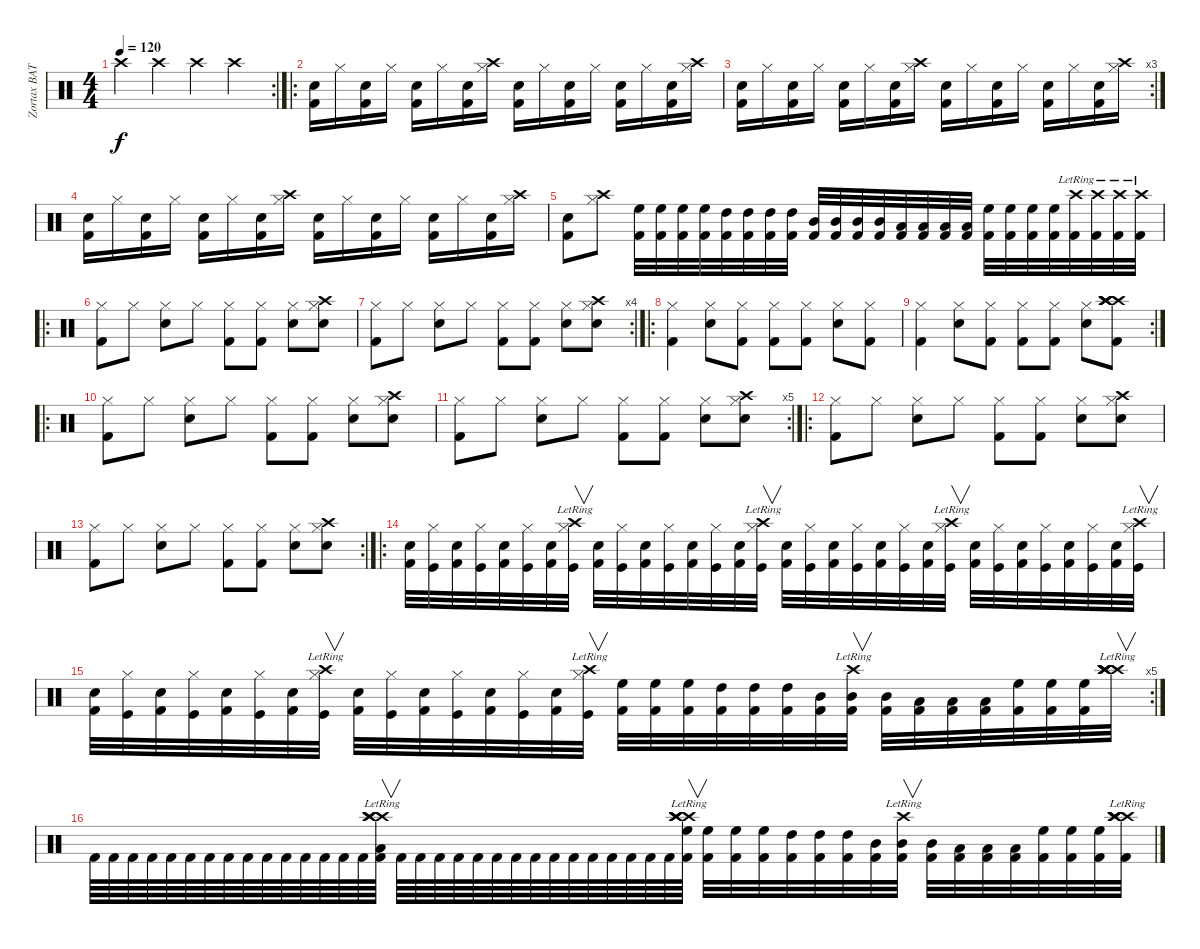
\track ("Zortax BATTERY" "Zortax BAT") {instrument percussion}
\staff {score}
\articulation defaults
\rc 2
\ts (4 4)
\tempo 120
\clef neutral
\ks c "Crash high (hit)".4{dy f} "Crash high (hit)".4 "Crash high (hit)".4 "Crash high (hit)".4
|
\ro
("Snare (hit) 2" "Kick (hit) 2").16 "Hi-Hat (closed)".16 ("Snare (hit) 2" "Kick (hit) 2").16 "Hi-Hat (closed)".16 ("Snare (hit) 2" "Kick (hit) 2").16 "Hi-Hat (closed)".16 ("Snare (hit) 2" "Kick (hit) 2").16 ("Hi-Hat (closed)" "Crash high (hit)").16 ("Snare (hit) 2" "Kick (hit) 2").16 "Hi-Hat (closed)".16 ("Snare (hit) 2" "Kick (hit) 2").16 "Hi-Hat (closed)".16 ("Snare (hit) 2" "Kick (hit) 2").16 "Hi-Hat (closed)".16 ("Snare (hit) 2" "Kick (hit) 2").16 ("Hi-Hat (closed)" "Crash high (hit)").16 |
\rc 3
("Snare (hit) 2" "Kick (hit) 2").16 "Hi-Hat (closed)".16 ("Snare (hit) 2" "Kick (hit) 2").16 "Hi-Hat (closed)".16 ("Snare (hit) 2" "Kick (hit) 2").16 "Hi-Hat (closed)".16 ("Snare (hit) 2" "Kick (hit) 2").16 ("Hi-Hat (closed)" "Crash high (hit)").16 ("Snare (hit) 2" "Kick (hit) 2").16 "Hi-Hat (closed)".16 ("Snare (hit) 2" "Kick (hit) 2").16 "Hi-Hat (closed)".16 ("Snare (hit) 2" "Kick (hit) 2").16 "Hi-Hat (closed)".16 ("Snare (hit) 2" "Kick (hit) 2").16 ("Hi-Hat (closed)" "Crash high (hit)").16 |
("Snare (hit) 2" "Kick (hit) 2").16 "Hi-Hat (closed)".16 ("Snare (hit) 2" "Kick (hit) 2").16 "Hi-Hat (closed)".16 ("Snare (hit) 2" "Kick (hit) 2").16 "Hi-Hat (closed)".16 ("Snare (hit) 2" "Kick (hit) 2").16 ("Hi-Hat (closed)" "Crash high (hit)").16 ("Snare (hit) 2" "Kick (hit) 2").16 "Hi-Hat (closed)".16 ("Snare (hit) 2" "Kick (hit) 2").16 "Hi-Hat (closed)".16 ("Snare (hit) 2" "Kick (hit) 2").16 "Hi-Hat (closed)".16 ("Snare (hit) 2" "Kick (hit) 2").16 ("Hi-Hat (closed)" "Crash high (hit)").16 |
("Snare (hit) 2" "Kick (hit) 2").8 ("Hi-Hat (closed)" "Crash high (hit)").8 ("Kick (hit) 2" "High Floor Tom (hit)").32 ("Kick (hit) 2" "High Floor Tom (hit)").32 ("Kick (hit) 2" "High Floor Tom (hit)").32 ("Kick (hit) 2" "High Floor Tom (hit)").32 ("Kick (hit) 2" "High Tom (hit)").32 ("Kick (hit) 2" "High Tom (hit)").32 ("Kick (hit) 2" "High Tom (hit)").32 ("Kick (hit) 2" "High Tom (hit)").32 ("Kick (hit) 2" "Mid Tom (hit)").32 ("Kick (hit) 2" "Mid Tom (hit)").32 ("Kick (hit) 2" "Mid Tom (hit)").32 ("Kick (hit) 2" "Mid Tom (hit)").32 ("Kick (hit) 2" "Low Tom (hit)").32 ("Kick (hit) 2" "Low Tom (hit)").32 ("Kick (hit) 2" "Low Tom (hit)").32 ("Kick (hit) 2" "Low Tom (hit)").32 ("Kick (hit) 2" "High Floor Tom (hit)").32 ("Kick (hit) 2" "High Floor Tom (hit)").32 ("Kick (hit) 2" "High Floor Tom (hit)").32 ("Kick (hit) 2" "High Floor Tom (hit)").32 ("Kick (hit) 2" "Crash high (hit)"{lr}).32 ("Kick (hit) 2" "Crash high (hit)"{lr}).32 ("Kick (hit) 2" "Crash high (hit)"{lr}).32 ("Kick (hit) 2" "Crash high (hit)"{lr}).32 |
\ro
("Kick (hit) 2" "Hi-Hat (closed)").8 "Hi-Hat (closed)".8 ("Snare (hit) 2" "Hi-Hat (closed)").8 "Hi-Hat (closed)".8 ("Kick (hit) 2" "Hi-Hat (closed)").8 ("Kick (hit) 2" "Hi-Hat (closed)").8 ("Snare (hit) 2" "Hi-Hat (closed)").8 ("Crash high (hit)" "Snare (hit) 2" "Hi-Hat (closed)").8 |
\rc 4
("Kick (hit) 2" "Hi-Hat (closed)").8 "Hi-Hat (closed)".8 ("Snare (hit) 2" "Hi-Hat (closed)").8 "Hi-Hat (closed)".8 ("Kick (hit) 2" "Hi-Hat (closed)").8 ("Kick (hit) 2" "Hi-Hat (closed)").8 ("Snare (hit) 2" "Hi-Hat (closed)").8 ("Crash high (hit)" "Snare (hit) 2" "Hi-Hat (closed)").8 |
\ro
("Kick (hit) 2" "Hi-Hat (closed)").4 ("Snare (hit) 2" "Hi-Hat (closed)").8 ("Kick (hit) 2" "Hi-Hat (closed)").8 ("Kick (hit) 2" "Hi-Hat (closed)").8 ("Kick (hit) 2" "Hi-Hat (closed)").8 ("Snare (hit) 2" "Hi-Hat (closed)").8 ("Kick (hit) 2" "Hi-Hat (closed)").8 |
\rc 2
("Kick (hit) 2" "Hi-Hat (closed)").4 ("Snare (hit) 2" "Hi-Hat (closed)").8 ("Kick (hit) 2" "Hi-Hat (closed)").8 ("Kick (hit) 2" "Hi-Hat (closed)").8 ("Kick (hit) 2" "Hi-Hat (closed)").8 ("Snare (hit) 2" "Hi-Hat (closed)").8 ("Kick (hit) 2" "Crash high (hit)" "Crash high (hit)" "Crash high (hit)" "Crash high (hit)" "Crash high (hit)").8 |
\ro
("Kick (hit) 2" "Hi-Hat (closed)").8 "Hi-Hat (closed)".8 ("Snare (hit) 2" "Hi-Hat (closed)").8 "Hi-Hat (closed)".8 ("Kick (hit) 2" "Hi-Hat (closed)").8 ("Kick (hit) 2" "Hi-Hat (closed)").8 ("Snare (hit) 2" "Hi-Hat (closed)").8 ("Crash high (hit)" "Snare (hit) 2" "Hi-Hat (closed)").8 |
\rc 5
("Kick (hit) 2" "Hi-Hat (closed)").8 "Hi-Hat (closed)".8 ("Snare (hit) 2" "Hi-Hat (closed)").8 "Hi-Hat (closed)".8 ("Kick (hit) 2" "Hi-Hat (closed)").8 ("Kick (hit) 2" "Hi-Hat (closed)").8 ("Snare (hit) 2" "Hi-Hat (closed)").8 ("Crash high (hit)" "Snare (hit) 2" "Hi-Hat (closed)").8 |
\ro
("Kick (hit) 2" "Hi-Hat (closed)").8 "Hi-Hat (closed)".8 ("Snare (hit) 2" "Hi-Hat (closed)").8 "Hi-Hat (closed)".8 ("Kick (hit) 2" "Hi-Hat (closed)").8 ("Kick (hit) 2" "Hi-Hat (closed)").8 ("Snare (hit) 2" "Hi-Hat (closed)").8 ("Crash high (hit)" "Snare (hit) 2" "Hi-Hat (closed)").8 |
\rc 2
("Kick (hit) 2" "Hi-Hat (closed)").8 "Hi-Hat (closed)".8 ("Snare (hit) 2" "Hi-Hat (closed)").8 "Hi-Hat (closed)".8 ("Kick (hit) 2" "Hi-Hat (closed)").8 ("Kick (hit) 2" "Hi-Hat (closed)").8 ("Snare (hit) 2" "Hi-Hat (closed)").8 ("Crash high (hit)" "Snare (hit) 2" "Hi-Hat (closed)").8 |
\ro
("Kick (hit) 2" "Snare (hit) 2").32 ("Kick (hit)" "Hi-Hat (closed)").32 ("Kick (hit) 2" "Snare (hit) 2").32 ("Kick (hit)" "Hi-Hat (closed)").32 ("Kick (hit) 2" "Snare (hit) 2").32 ("Kick (hit)" "Hi-Hat (closed)").32 ("Kick (hit) 2" "Snare (hit) 2").32 ("Kick (hit)" "Hi-Hat (closed)" "Crash high (hit)"{lr}).32{v} ("Kick (hit) 2" "Snare (hit) 2").32 ("Kick (hit)" "Hi-Hat (closed)").32 ("Kick (hit) 2" "Snare (hit) 2").32 ("Kick (hit)" "Hi-Hat (closed)").32 ("Kick (hit) 2" "Snare (hit) 2").32 ("Kick (hit)" "Hi-Hat (closed)").32 ("Kick (hit) 2" "Snare (hit) 2").32 ("Kick (hit)" "Hi-Hat (closed)" "Crash high (hit)"{lr}).32{v} ("Kick (hit) 2" "Snare (hit) 2").32 ("Kick (hit)" "Hi-Hat (closed)").32 ("Kick (hit) 2" "Snare (hit) 2").32 ("Kick (hit)" "Hi-Hat (closed)").32 ("Kick (hit) 2" "Snare (hit) 2").32 ("Kick (hit)" "Hi-Hat (closed)").32 ("Kick (hit) 2" "Snare (hit) 2").32 ("Kick (hit)" "Hi-Hat (closed)" "Crash high (hit)"{lr}).32{v} ("Kick (hit) 2" "Snare (hit) 2").32 ("Kick (hit)" "Hi-Hat (closed)").32 ("Kick (hit) 2" "Snare (hit) 2").32 ("Kick (hit)" "Hi-Hat (closed)").32 ("Kick (hit) 2" "Snare (hit) 2").32 ("Kick (hit)" "Hi-Hat (closed)").32 ("Kick (hit) 2" "Snare (hit) 2").32 ("Kick (hit)" "Hi-Hat (closed)" "Crash high (hit)"{lr}).32{v} |
\rc 5
("Kick (hit) 2" "Snare (hit) 2").32 ("Kick (hit)" "Hi-Hat (closed)").32 ("Kick (hit) 2" "Snare (hit) 2").32 ("Kick (hit)" "Hi-Hat (closed)").32 ("Kick (hit) 2" "Snare (hit) 2").32 ("Kick (hit)" "Hi-Hat (closed)").32 ("Kick (hit) 2" "Snare (hit) 2").32 ("Kick (hit)" "Hi-Hat (closed)" "Crash high (hit)"{lr}).32{v} ("Kick (hit) 2" "Snare (hit) 2").32 ("Kick (hit)" "Hi-Hat (closed)").32 ("Kick (hit) 2" "Snare (hit) 2").32 ("Kick (hit)" "Hi-Hat (closed)").32 ("Kick (hit) 2" "Snare (hit) 2").32 ("Kick (hit)" "Hi-Hat (closed)").32 ("Kick (hit) 2" "Snare (hit) 2").32 ("Kick (hit)" "Hi-Hat (closed)" "Crash high (hit)"{lr}).32{v} ("Kick (hit) 2" "High Floor Tom (hit)").32 ("Kick (hit) 2" "High Floor Tom (hit)").32 ("Kick (hit) 2" "High Floor Tom (hit)").32 ("Kick (hit) 2" "High Tom (hit)").32 ("Kick (hit) 2" "High Tom (hit)").32 ("Kick (hit) 2" "High Tom (hit)").32 ("Kick (hit) 2" "Mid Tom (hit)").32 ("Kick (hit) 2" "Mid Tom (hit)" "Crash high (hit)"{lr}).32{v} ("Kick (hit) 2" "Mid Tom (hit)").32 ("Kick (hit) 2" "Low Tom (hit)").32 ("Kick (hit) 2" "Low Tom (hit)").32 ("Kick (hit) 2" "Low Tom (hit)").32 ("Kick (hit) 2" "High Floor Tom (hit)").32 ("Kick (hit) 2" "High Floor Tom (hit)").32 ("Kick (hit) 2" "High Floor Tom (hit)").32 ("Crash high (hit)"{lr} "Crash high (hit)"{lr} "Crash high (hit)"{lr} "Crash high (hit)"{lr} "Crash high (hit)"{lr} "Crash high (hit)"{lr}).32{v} |
"Kick (hit) 2".64 "Kick (hit) 2".64 "Kick (hit) 2".64 "Kick (hit) 2".64 "Kick (hit) 2".64 "Kick (hit) 2".64 "Kick (hit) 2".64 "Kick (hit) 2".64 "Kick (hit) 2".64 "Kick (hit) 2".64 "Kick (hit) 2".64 "Kick (hit) 2".64 "Kick (hit) 2".64 "Kick (hit) 2".64 "Kick (hit) 2".64 ("Crash high (hit)"{lr} "Kick (hit) 2" "Low Tom (hit)" "Crash high (hit)"{lr} "Crash high (hit)"{lr} "Crash high (hit)"{lr}).64{v} "Kick (hit) 2".64 "Kick (hit) 2".64 "Kick (hit) 2".64 "Kick (hit) 2".64 "Kick (hit) 2".64 "Kick (hit) 2".64 "Kick (hit) 2".64 "Kick (hit) 2".64 "Kick (hit) 2".64 "Kick (hit) 2".64 "Kick (hit) 2".64 "Kick (hit) 2".64 "Kick (hit) 2".64 "Kick (hit) 2".64 "Kick (hit) 2".64 ("Crash high (hit)"{lr} "Kick (hit) 2"{lr} "High Floor Tom (hit)"{lr} "Crash high (hit)"{lr} "Crash high (hit)"{lr} "Crash high (hit)"{lr}).64{v} ("Kick (hit) 2" "High Floor Tom (hit)").32 ("Kick (hit) 2" "High Floor Tom (hit)").32 ("Kick (hit) 2" "High Floor Tom (hit)").32 ("Kick (hit) 2" "High Tom (hit)").32 ("Kick (hit) 2" "High Tom (hit)").32 ("Kick (hit) 2" "High Tom (hit)").32 ("Kick (hit) 2" "Mid Tom (hit)").32 ("Kick (hit) 2" "Mid Tom (hit)" "Crash high (hit)"{lr}).32{v} ("Kick (hit) 2" "Mid Tom (hit)").32 ("Kick (hit) 2" "Low Tom (hit)").32 ("Kick (hit) 2" "Low Tom (hit)").32 ("Kick (hit) 2" "Low Tom (hit)").32 ("Kick (hit) 2" "High Floor Tom (hit)").32 ("Kick (hit) 2" "High Floor Tom (hit)").32 ("Kick (hit) 2" "High Floor Tom (hit)").32 ("Crash high (hit)"{lr} "Kick (hit) 2" "Crash high (hit)"{lr} "Crash high (hit)"{lr} "Crash high (hit)"{lr} "Crash high (hit)"{lr}).32
